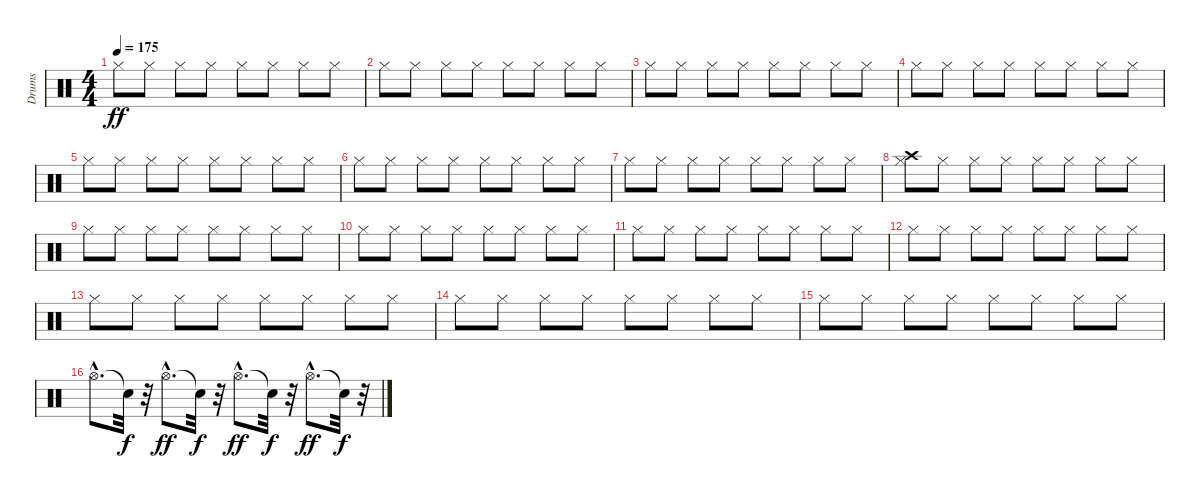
\track ("Drums" "Drums") {instrument percussion}
\staff {score}
\articulation defaults
\ts (4 4)
\tempo 175
\clef neutral
\ks c "Hi-Hat (closed)".8{dy ff} "Hi-Hat (closed)".8 "Hi-Hat (closed)".8 "Hi-Hat (closed)".8 "Hi-Hat (closed)".8 "Hi-Hat (closed)".8 "Hi-Hat (closed)".8 "Hi-Hat (closed)".8
|
"Hi-Hat (closed)".8 "Hi-Hat (closed)".8 "Hi-Hat (closed)".8 "Hi-Hat (closed)".8 "Hi-Hat (closed)".8 "Hi-Hat (closed)".8 "Hi-Hat (closed)".8 "Hi-Hat (closed)".8 |
"Hi-Hat (closed)".8 "Hi-Hat (closed)".8 "Hi-Hat (closed)".8 "Hi-Hat (closed)".8 "Hi-Hat (closed)".8 "Hi-Hat (closed)".8 "Hi-Hat (closed)".8 "Hi-Hat (closed)".8 |
"Hi-Hat (closed)".8 "Hi-Hat (closed)".8 "Hi-Hat (closed)".8 "Hi-Hat (closed)".8 "Hi-Hat (closed)".8 "Hi-Hat (closed)".8 "Hi-Hat (closed)".8 "Hi-Hat (closed)".8 |
"Hi-Hat (closed)".8 "Hi-Hat (closed)".8 "Hi-Hat (closed)".8 "Hi-Hat (closed)".8 "Hi-Hat (closed)".8 "Hi-Hat (closed)".8 "Hi-Hat (closed)".8 "Hi-Hat (closed)".8 |
"Hi-Hat (closed)".8 "Hi-Hat (closed)".8 "Hi-Hat (closed)".8 "Hi-Hat (closed)".8 "Hi-Hat (closed)".8 "Hi-Hat (closed)".8 "Hi-Hat (closed)".8 "Hi-Hat (closed)".8 |
"Hi-Hat (closed)".8 "Hi-Hat (closed)".8 "Hi-Hat (closed)".8 "Hi-Hat (closed)".8 "Hi-Hat (closed)".8 "Hi-Hat (closed)".8 "Hi-Hat (closed)".8 "Hi-Hat (closed)".8 |
("Hi-Hat (closed)" "Crash high (hit)").8 "Hi-Hat (closed)".8 "Hi-Hat (closed)".8 "Hi-Hat (closed)".8 "Hi-Hat (closed)".8 "Hi-Hat (closed)".8 "Hi-Hat (closed)".8 "Hi-Hat (closed)".8 |
"Hi-Hat (closed)".8 "Hi-Hat (closed)".8 "Hi-Hat (closed)".8 "Hi-Hat (closed)".8 "Hi-Hat (closed)".8 "Hi-Hat (closed)".8 "Hi-Hat (closed)".8 "Hi-Hat (closed)".8 |
"Hi-Hat (closed)".8 "Hi-Hat (closed)".8 "Hi-Hat (closed)".8 "Hi-Hat (closed)".8 "Hi-Hat (closed)".8 "Hi-Hat (closed)".8 "Hi-Hat (closed)".8 "Hi-Hat (closed)".8 |
"Hi-Hat (closed)".8 "Hi-Hat (closed)".8 "Hi-Hat (closed)".8 "Hi-Hat (closed)".8 "Hi-Hat (closed)".8 "Hi-Hat (closed)".8 "Hi-Hat (closed)".8 "Hi-Hat (closed)".8 |
"Hi-Hat (closed)".8 "Hi-Hat (closed)".8 "Hi-Hat (closed)".8 "Hi-Hat (closed)".8 "Hi-Hat (closed)".8 "Hi-Hat (closed)".8 "Hi-Hat (closed)".8 "Hi-Hat (closed)".8 |
"Hi-Hat (closed)".8 "Hi-Hat (closed)".8 "Hi-Hat (closed)".8 "Hi-Hat (closed)".8 "Hi-Hat (closed)".8 "Hi-Hat (closed)".8 "Hi-Hat (closed)".8 "Hi-Hat (closed)".8 |
"Hi-Hat (closed)".8 "Hi-Hat (closed)".8 "Hi-Hat (closed)".8 "Hi-Hat (closed)".8 "Hi-Hat (closed)".8 "Hi-Hat (closed)".8 "Hi-Hat (closed)".8 "Hi-Hat (closed)".8 |
"Hi-Hat (closed)".8 "Hi-Hat (closed)".8 "Hi-Hat (closed)".8 "Hi-Hat (closed)".8 "Hi-Hat (closed)".8 "Hi-Hat (closed)".8 "Hi-Hat (closed)".8 "Hi-Hat (closed)".8 |
"Hi-Hat (open)"{hac}.8{d} "Snare (hit)"{t}.32{dy f} r.32 "Hi-Hat (open)"{hac}.8{d dy ff} "Snare (hit)"{t}.32{dy f} r.32 "Hi-Hat (open)"{hac}.8{d dy ff} "Snare (hit)"{t}.32{dy f} r.32 "Hi-Hat (open)"{hac}.8{d dy ff} "Snare (hit)"{t}.32{dy f} r.32
